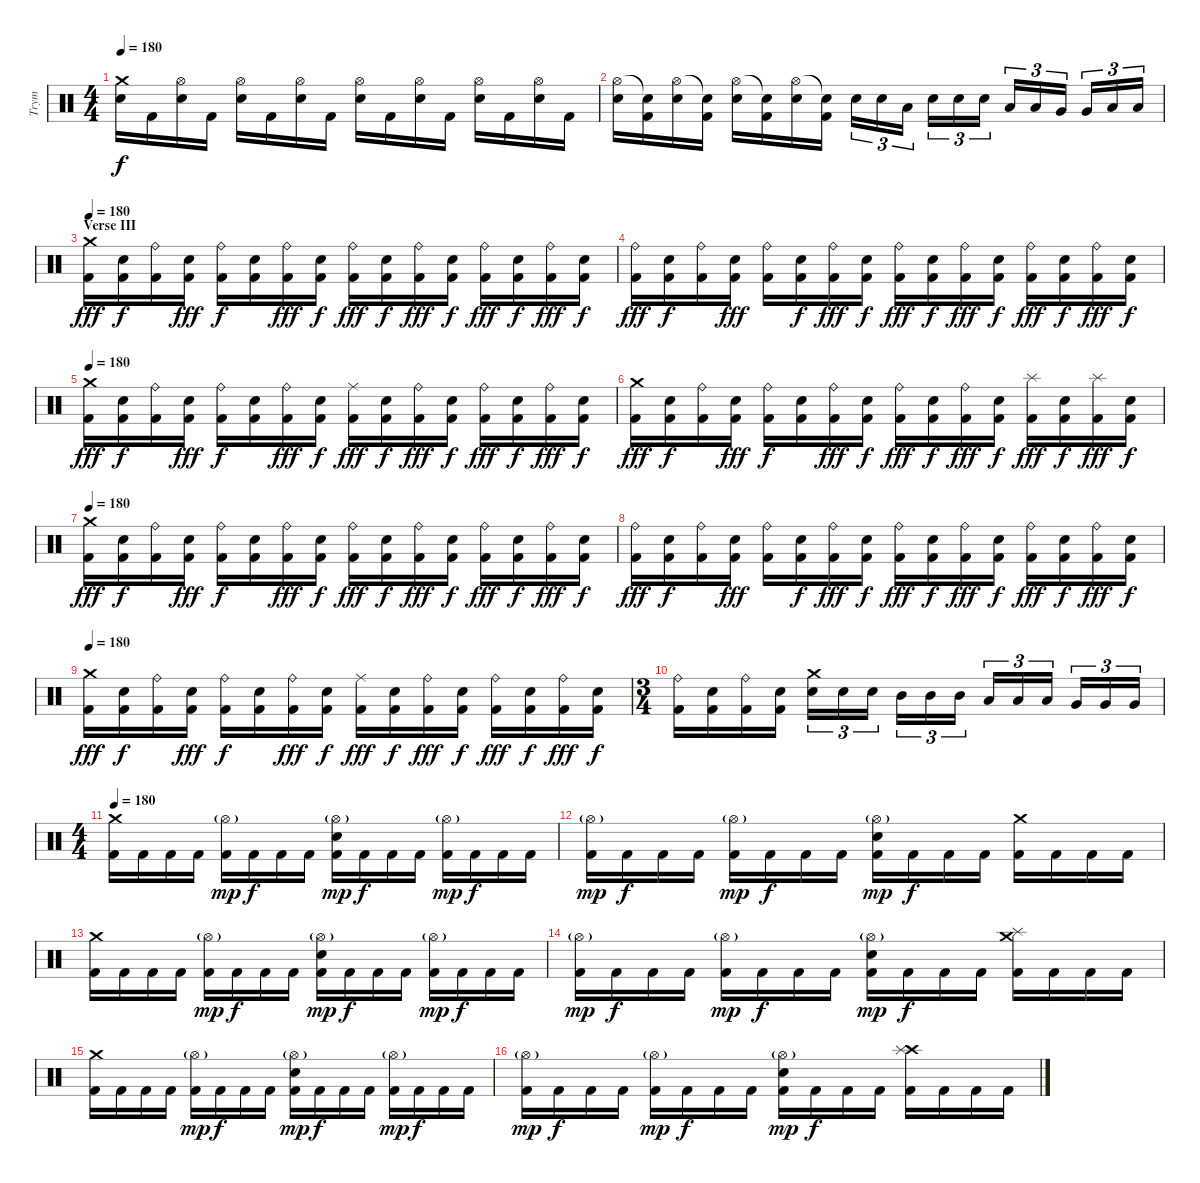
\track ("Trym" "Trym") {instrument percussion}
\staff {score}
\articulation defaults
\ts (4 4)
\tempo 180
\clef neutral
\ks c
("Crash medium (hit)" "Electric Snare (hit)").16{dy f} "Kick (hit) 2".16 ("Hi-Hat (open)" "Electric Snare (hit)").16 "Kick (hit) 2".16 ("Hi-Hat (open)" "Electric Snare (hit)").16 "Kick (hit) 2".16 ("Hi-Hat (open)" "Electric Snare (hit)").16 "Kick (hit) 2".16 ("Hi-Hat (open)" "Electric Snare (hit)").16 "Kick (hit) 2".16 ("Hi-Hat (open)" "Electric Snare (hit)").16 "Kick (hit) 2".16 ("Hi-Hat (open)" "Electric Snare (hit)").16 "Kick (hit) 2".16 ("Hi-Hat (open)" "Electric Snare (hit)").16 "Kick (hit) 2".16 |
("Hi-Hat (open)" "Electric Snare (hit)").16 ("Snare (hit)"{t} "Kick (hit) 2").16 ("Hi-Hat (open)" "Electric Snare (hit)").16 ("Snare (hit)"{t} "Kick (hit) 2").16 ("Hi-Hat (open)" "Electric Snare (hit)").16 ("Snare (hit)"{t} "Kick (hit) 2").16 ("Hi-Hat (open)" "Electric Snare (hit)").16 ("Snare (hit)"{t} "Kick (hit) 2").16 "Snare (hit) 2".16{tu (3 2)} "Snare (hit) 2".16{tu (3 2)} "Low Tom (hit)".16{tu (3 2)} "Snare (hit) 2".16{tu (3 2)} "Snare (hit) 2".16{tu (3 2)} "Snare (hit) 2".16{tu (3 2)} "Low Tom (hit)".16{tu (3 2)} "Low Tom (hit)".16{tu (3 2)} "Very Low Tom (hit)".16{tu (3 2)} "Very Low Tom (hit)".16{tu (3 2)} "Low Floor Tom (hit)".16{tu (3 2)} "Low Floor Tom (hit)".16{tu (3 2)} |
\section ("" "Verse III")
\tempo 180
("Crash medium (hit)" "Kick (hit) 2").16{dy fff} ("Snare (hit) 2" "Kick (hit) 2").16{dy f} ("Ride (bell)" "Kick (hit) 2").16 ("Snare (hit) 2" "Kick (hit) 2").16{dy fff} ("Ride (bell)" "Kick (hit) 2").16{dy f} ("Snare (hit) 2" "Kick (hit) 2").16 ("Ride (bell)" "Kick (hit) 2").16{dy fff} ("Snare (hit) 2" "Kick (hit) 2").16{dy f} ("Ride (bell)" "Kick (hit) 2").16{dy fff} ("Snare (hit) 2" "Kick (hit) 2").16{dy f} ("Ride (bell)" "Kick (hit) 2").16{dy fff} ("Snare (hit) 2" "Kick (hit) 2").16{dy f} ("Ride (bell)" "Kick (hit) 2").16{dy fff} ("Snare (hit) 2" "Kick (hit) 2").16{dy f} ("Ride (bell)" "Kick (hit) 2").16{dy fff} ("Snare (hit) 2" "Kick (hit) 2").16{dy f} |
("Ride (bell)" "Kick (hit) 2").16{dy fff} ("Snare (hit) 2" "Kick (hit) 2").16{dy f} ("Ride (bell)" "Kick (hit) 2").16 ("Snare (hit) 2" "Kick (hit) 2").16{dy fff} ("Ride (bell)" "Kick (hit) 2").16 ("Snare (hit) 2" "Kick (hit) 2").16{dy f} ("Ride (bell)" "Kick (hit) 2").16{dy fff} ("Snare (hit) 2" "Kick (hit) 2").16{dy f} ("Ride (bell)" "Kick (hit) 2").16{dy fff} ("Snare (hit) 2" "Kick (hit) 2").16{dy f} ("Ride (bell)" "Kick (hit) 2").16{dy fff} ("Snare (hit) 2" "Kick (hit) 2").16{dy f} ("Ride (bell)" "Kick (hit) 2").16{dy fff} ("Snare (hit) 2" "Kick (hit) 2").16{dy f} ("Ride (bell)" "Kick (hit) 2").16{dy fff} ("Snare (hit) 2" "Kick (hit) 2").16{dy f} |
\tempo 180
("Crash medium (hit)" "Kick (hit) 2").16{dy fff} ("Snare (hit) 2" "Kick (hit) 2").16{dy f} ("Ride (bell)" "Kick (hit) 2").16 ("Snare (hit) 2" "Kick (hit) 2").16{dy fff} ("Ride (bell)" "Kick (hit) 2").16{dy f} ("Snare (hit) 2" "Kick (hit) 2").16 ("Ride (bell)" "Kick (hit) 2").16{dy fff} ("Snare (hit) 2" "Kick (hit) 2").16{dy f} ("Ride (middle)" "Kick (hit) 2").16{dy fff} ("Snare (hit) 2" "Kick (hit) 2").16{dy f} ("Ride (bell)" "Kick (hit) 2").16{dy fff} ("Snare (hit) 2" "Kick (hit) 2").16{dy f} ("Ride (bell)" "Kick (hit) 2").16{dy fff} ("Snare (hit) 2" "Kick (hit) 2").16{dy f} ("Ride (bell)" "Kick (hit) 2").16{dy fff} ("Snare (hit) 2" "Kick (hit) 2").16{dy f} |
("Crash medium (hit)" "Kick (hit) 2").16{dy fff} ("Snare (hit) 2" "Kick (hit) 2").16{dy f} ("Ride (bell)" "Kick (hit) 2").16 ("Snare (hit) 2" "Kick (hit) 2").16{dy fff} ("Ride (bell)" "Kick (hit) 2").16{dy f} ("Snare (hit) 2" "Kick (hit) 2").16 ("Ride (bell)" "Kick (hit) 2").16{dy fff} ("Snare (hit) 2" "Kick (hit) 2").16{dy f} ("Ride (bell)" "Kick (hit) 2").16{dy fff} ("Snare (hit) 2" "Kick (hit) 2").16{dy f} ("Ride (bell)" "Kick (hit) 2").16{dy fff} ("Snare (hit) 2" "Kick (hit) 2").16{dy f} ("Splash (hit)" "Kick (hit) 2").16{dy fff} ("Snare (hit) 2" "Kick (hit) 2").16{dy f} ("Splash (hit)" "Kick (hit) 2").16{dy fff} ("Snare (hit) 2" "Kick (hit) 2").16{dy f} |
\tempo 180
("Crash medium (hit)" "Kick (hit) 2").16{dy fff} ("Snare (hit) 2" "Kick (hit) 2").16{dy f} ("Ride (bell)" "Kick (hit) 2").16 ("Snare (hit) 2" "Kick (hit) 2").16{dy fff} ("Ride (bell)" "Kick (hit) 2").16{dy f} ("Snare (hit) 2" "Kick (hit) 2").16 ("Ride (bell)" "Kick (hit) 2").16{dy fff} ("Snare (hit) 2" "Kick (hit) 2").16{dy f} ("Ride (bell)" "Kick (hit) 2").16{dy fff} ("Snare (hit) 2" "Kick (hit) 2").16{dy f} ("Ride (bell)" "Kick (hit) 2").16{dy fff} ("Snare (hit) 2" "Kick (hit) 2").16{dy f} ("Ride (bell)" "Kick (hit) 2").16{dy fff} ("Snare (hit) 2" "Kick (hit) 2").16{dy f} ("Ride (bell)" "Kick (hit) 2").16{dy fff} ("Snare (hit) 2" "Kick (hit) 2").16{dy f} |
("Ride (bell)" "Kick (hit) 2").16{dy fff} ("Snare (hit) 2" "Kick (hit) 2").16{dy f} ("Ride (bell)" "Kick (hit) 2").16 ("Snare (hit) 2" "Kick (hit) 2").16{dy fff} ("Ride (bell)" "Kick (hit) 2").16 ("Snare (hit) 2" "Kick (hit) 2").16{dy f} ("Ride (bell)" "Kick (hit) 2").16{dy fff} ("Snare (hit) 2" "Kick (hit) 2").16{dy f} ("Ride (bell)" "Kick (hit) 2").16{dy fff} ("Snare (hit) 2" "Kick (hit) 2").16{dy f} ("Ride (bell)" "Kick (hit) 2").16{dy fff} ("Snare (hit) 2" "Kick (hit) 2").16{dy f} ("Ride (bell)" "Kick (hit) 2").16{dy fff} ("Snare (hit) 2" "Kick (hit) 2").16{dy f} ("Ride (bell)" "Kick (hit) 2").16{dy fff} ("Snare (hit) 2" "Kick (hit) 2").16{dy f} |
\tempo 180
("Crash medium (hit)" "Kick (hit) 2").16{dy fff} ("Snare (hit) 2" "Kick (hit) 2").16{dy f} ("Ride (bell)" "Kick (hit) 2").16 ("Snare (hit) 2" "Kick (hit) 2").16{dy fff} ("Ride (bell)" "Kick (hit) 2").16{dy f} ("Snare (hit) 2" "Kick (hit) 2").16 ("Ride (bell)" "Kick (hit) 2").16{dy fff} ("Snare (hit) 2" "Kick (hit) 2").16{dy f} ("Ride (middle)" "Kick (hit) 2").16{dy fff} ("Snare (hit) 2" "Kick (hit) 2").16{dy f} ("Ride (bell)" "Kick (hit) 2").16{dy fff} ("Snare (hit) 2" "Kick (hit) 2").16{dy f} ("Ride (bell)" "Kick (hit) 2").16{dy fff} ("Snare (hit) 2" "Kick (hit) 2").16{dy f} ("Ride (bell)" "Kick (hit) 2").16{dy fff} ("Snare (hit) 2" "Kick (hit) 2").16{dy f} |
\ts (3 4)
("Ride (bell)" "Kick (hit) 2").16 ("Snare (hit) 2" "Kick (hit) 2").16 ("Ride (bell)" "Kick (hit) 2").16 ("Snare (hit) 2" "Kick (hit) 2").16 ("Crash medium (hit)" "Snare (hit) 2").16{tu (3 2)} "Snare (hit) 2".16{tu (3 2)} "Snare (hit) 2".16{tu (3 2)} "Mid Tom (hit)".16{tu (3 2)} "Mid Tom (hit)".16{tu (3 2)} "Mid Tom (hit)".16{tu (3 2)} "Low Tom (hit)".16{tu (3 2)} "Low Tom (hit)".16{tu (3 2)} "Low Tom (hit)".16{tu (3 2)} "Very Low Tom (hit)".16{tu (3 2)} "Very Low Tom (hit)".16{tu (3 2)} "Very Low Tom (hit)".16{tu (3 2)} |
\ts (4 4)
\tempo 180
("Crash medium (hit)" "Kick (hit) 2").16 "Kick (hit) 2".16 "Kick (hit) 2".16 "Kick (hit) 2".16 ("Hi-Hat (open)"{g} "Kick (hit) 2").16{dy mp} "Kick (hit) 2".16{dy f} "Kick (hit) 2".16 "Kick (hit) 2".16 ("Hi-Hat (open)"{g} "Electric Snare (hit)" "Kick (hit) 2").16{dy mp} "Kick (hit) 2".16{dy f} "Kick (hit) 2".16 "Kick (hit) 2".16 ("Hi-Hat (open)"{g} "Kick (hit) 2").16{dy mp} "Kick (hit) 2".16{dy f} "Kick (hit) 2".16 "Kick (hit) 2".16 |
("Hi-Hat (open)"{g} "Kick (hit) 2").16{dy mp} "Kick (hit) 2".16{dy f} "Kick (hit) 2".16 "Kick (hit) 2".16 ("Hi-Hat (open)"{g} "Kick (hit) 2").16{dy mp} "Kick (hit) 2".16{dy f} "Kick (hit) 2".16 "Kick (hit) 2".16 ("Hi-Hat (open)"{g} "Electric Snare (hit)" "Kick (hit) 2").16{dy mp} "Kick (hit) 2".16{dy f} "Kick (hit) 2".16 "Kick (hit) 2".16 ("Crash medium (hit)" "Kick (hit) 2").16 "Kick (hit) 2".16 "Kick (hit) 2".16 "Kick (hit) 2".16 |
("Crash medium (hit)" "Kick (hit) 2").16 "Kick (hit) 2".16 "Kick (hit) 2".16 "Kick (hit) 2".16 ("Hi-Hat (open)"{g} "Kick (hit) 2").16{dy mp} "Kick (hit) 2".16{dy f} "Kick (hit) 2".16 "Kick (hit) 2".16 ("Hi-Hat (open)"{g} "Electric Snare (hit)" "Kick (hit) 2").16{dy mp} "Kick (hit) 2".16{dy f} "Kick (hit) 2".16 "Kick (hit) 2".16 ("Hi-Hat (open)"{g} "Kick (hit) 2").16{dy mp} "Kick (hit) 2".16{dy f} "Kick (hit) 2".16 "Kick (hit) 2".16 |
("Hi-Hat (open)"{g} "Kick (hit) 2").16{dy mp} "Kick (hit) 2".16{dy f} "Kick (hit) 2".16 "Kick (hit) 2".16 ("Hi-Hat (open)"{g} "Kick (hit) 2").16{dy mp} "Kick (hit) 2".16{dy f} "Kick (hit) 2".16 "Kick (hit) 2".16 ("Hi-Hat (open)"{g} "Electric Snare (hit)" "Kick (hit) 2").16{dy mp} "Kick (hit) 2".16{dy f} "Kick (hit) 2".16 "Kick (hit) 2".16 ("Crash medium (hit)" "Splash (hit)" "Kick (hit) 2").16 "Kick (hit) 2".16 "Kick (hit) 2".16 "Kick (hit) 2".16 |
("Crash medium (hit)" "Kick (hit) 2").16 "Kick (hit) 2".16 "Kick (hit) 2".16 "Kick (hit) 2".16 ("Hi-Hat (open)"{g} "Kick (hit) 2").16{dy mp} "Kick (hit) 2".16{dy f} "Kick (hit) 2".16 "Kick (hit) 2".16 ("Hi-Hat (open)"{g} "Electric Snare (hit)" "Kick (hit) 2").16{dy mp} "Kick (hit) 2".16{dy f} "Kick (hit) 2".16 "Kick (hit) 2".16 ("Hi-Hat (open)"{g} "Kick (hit) 2").16{dy mp} "Kick (hit) 2".16{dy f} "Kick (hit) 2".16 "Kick (hit) 2".16 |
("Hi-Hat (open)"{g} "Kick (hit) 2").16{dy mp} "Kick (hit) 2".16{dy f} "Kick (hit) 2".16 "Kick (hit) 2".16 ("Hi-Hat (open)"{g} "Kick (hit) 2").16{dy mp} "Kick (hit) 2".16{dy f} "Kick (hit) 2".16 "Kick (hit) 2".16 ("Hi-Hat (open)"{g} "Electric Snare (hit)" "Kick (hit) 2").16{dy mp} "Kick (hit) 2".16{dy f} "Kick (hit) 2".16 "Kick (hit) 2".16 ("Crash high (hit)" "Splash (hit)" "Kick (hit) 2").16 "Kick (hit) 2".16 "Kick (hit) 2".16 "Kick (hit) 2".16
